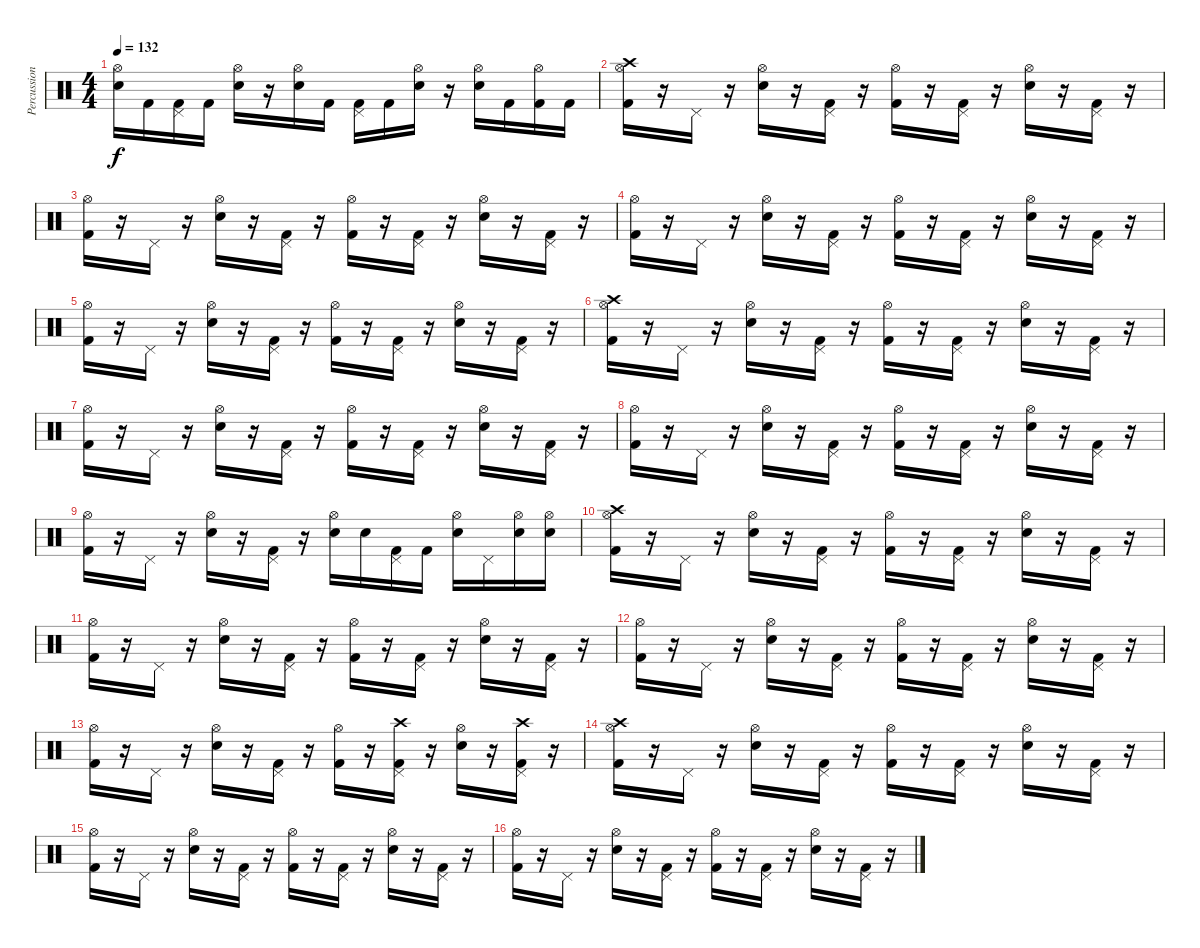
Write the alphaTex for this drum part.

\track ("Percussion" "Percussion") {instrument percussion}
\staff {score}
\articulation defaults
\ts (4 4)
\tempo 132
\clef neutral
\ks c
("Hi-Hat (open)" "Snare (hit) 2").16{dy f} "Kick (hit) 2".16 ("Pedal Hi-Hat (hit)" "Kick (hit) 2").16 "Kick (hit) 2".16 ("Snare (hit) 2" "Hi-Hat (open)").16 r.16 ("Hi-Hat (open)" "Snare (hit) 2").16 "Kick (hit) 2".16 ("Kick (hit) 2" "Pedal Hi-Hat (hit)").16 "Kick (hit) 2".16 ("Hi-Hat (open)" "Snare (hit) 2").16 r.16 ("Snare (hit) 2" "Hi-Hat (open)").16 "Kick (hit) 2".16 ("Kick (hit) 2" "Hi-Hat (open)").16 "Kick (hit) 2".16 |
("Kick (hit) 2" "Crash high (hit)" "Hi-Hat (open)").16 r.16 "Pedal Hi-Hat (hit)".16 r.16 ("Snare (hit) 2" "Hi-Hat (open)").16 r.16 ("Kick (hit) 2" "Pedal Hi-Hat (hit)").16 r.16 ("Kick (hit) 2" "Hi-Hat (open)").16 r.16 ("Kick (hit) 2" "Pedal Hi-Hat (hit)").16 r.16 ("Snare (hit) 2" "Hi-Hat (open)").16 r.16 ("Kick (hit) 2" "Pedal Hi-Hat (hit)").16 r.16 |
("Kick (hit) 2" "Hi-Hat (open)").16 r.16 "Pedal Hi-Hat (hit)".16 r.16 ("Snare (hit) 2" "Hi-Hat (open)").16 r.16 ("Kick (hit) 2" "Pedal Hi-Hat (hit)").16 r.16 ("Kick (hit) 2" "Hi-Hat (open)").16 r.16 ("Kick (hit) 2" "Pedal Hi-Hat (hit)").16 r.16 ("Snare (hit) 2" "Hi-Hat (open)").16 r.16 ("Kick (hit) 2" "Pedal Hi-Hat (hit)").16 r.16 |
("Kick (hit) 2" "Hi-Hat (open)").16 r.16 "Pedal Hi-Hat (hit)".16 r.16 ("Snare (hit) 2" "Hi-Hat (open)").16 r.16 ("Kick (hit) 2" "Pedal Hi-Hat (hit)").16 r.16 ("Kick (hit) 2" "Hi-Hat (open)").16 r.16 ("Kick (hit) 2" "Pedal Hi-Hat (hit)").16 r.16 ("Snare (hit) 2" "Hi-Hat (open)").16 r.16 ("Kick (hit) 2" "Pedal Hi-Hat (hit)").16 r.16 |
("Kick (hit) 2" "Hi-Hat (open)").16 r.16 "Pedal Hi-Hat (hit)".16 r.16 ("Snare (hit) 2" "Hi-Hat (open)").16 r.16 ("Kick (hit) 2" "Pedal Hi-Hat (hit)").16 r.16 ("Kick (hit) 2" "Hi-Hat (open)").16 r.16 ("Kick (hit) 2" "Pedal Hi-Hat (hit)").16 r.16 ("Snare (hit) 2" "Hi-Hat (open)").16 r.16 ("Kick (hit) 2" "Pedal Hi-Hat (hit)").16 r.16 |
("Kick (hit) 2" "Crash high (hit)" "Hi-Hat (open)").16 r.16 "Pedal Hi-Hat (hit)".16 r.16 ("Snare (hit) 2" "Hi-Hat (open)").16 r.16 ("Kick (hit) 2" "Pedal Hi-Hat (hit)").16 r.16 ("Kick (hit) 2" "Hi-Hat (open)").16 r.16 ("Kick (hit) 2" "Pedal Hi-Hat (hit)").16 r.16 ("Snare (hit) 2" "Hi-Hat (open)").16 r.16 ("Kick (hit) 2" "Pedal Hi-Hat (hit)").16 r.16 |
("Kick (hit) 2" "Hi-Hat (open)").16 r.16 "Pedal Hi-Hat (hit)".16 r.16 ("Snare (hit) 2" "Hi-Hat (open)").16 r.16 ("Kick (hit) 2" "Pedal Hi-Hat (hit)").16 r.16 ("Kick (hit) 2" "Hi-Hat (open)").16 r.16 ("Kick (hit) 2" "Pedal Hi-Hat (hit)").16 r.16 ("Snare (hit) 2" "Hi-Hat (open)").16 r.16 ("Kick (hit) 2" "Pedal Hi-Hat (hit)").16 r.16 |
("Kick (hit) 2" "Hi-Hat (open)").16 r.16 "Pedal Hi-Hat (hit)".16 r.16 ("Snare (hit) 2" "Hi-Hat (open)").16 r.16 ("Kick (hit) 2" "Pedal Hi-Hat (hit)").16 r.16 ("Kick (hit) 2" "Hi-Hat (open)").16 r.16 ("Kick (hit) 2" "Pedal Hi-Hat (hit)").16 r.16 ("Snare (hit) 2" "Hi-Hat (open)").16 r.16 ("Kick (hit) 2" "Pedal Hi-Hat (hit)").16 r.16 |
("Hi-Hat (open)" "Kick (hit) 2").16 r.16 "Pedal Hi-Hat (hit)".16 r.16 ("Hi-Hat (open)" "Snare (hit) 2").16 r.16 ("Pedal Hi-Hat (hit)" "Kick (hit) 2").16 r.16 ("Snare (hit) 2" "Hi-Hat (open)").16 "Snare (hit) 2".16 ("Kick (hit) 2" "Pedal Hi-Hat (hit)").16 "Kick (hit) 2".16 ("Snare (hit) 2" "Hi-Hat (open)").16 "Pedal Hi-Hat (hit)".16 ("Snare (hit) 2" "Hi-Hat (open)").16 ("Snare (hit) 2" "Hi-Hat (open)").16 |
("Crash high (hit)" "Hi-Hat (open)" "Kick (hit) 2").16 r.16 "Pedal Hi-Hat (hit)".16 r.16 ("Hi-Hat (open)" "Snare (hit) 2").16 r.16 ("Pedal Hi-Hat (hit)" "Kick (hit) 2").16 r.16 ("Hi-Hat (open)" "Kick (hit) 2").16 r.16 ("Pedal Hi-Hat (hit)" "Kick (hit) 2").16 r.16 ("Hi-Hat (open)" "Snare (hit) 2").16 r.16 ("Pedal Hi-Hat (hit)" "Kick (hit) 2").16 r.16 |
("Kick (hit) 2" "Hi-Hat (open)").16 r.16 "Pedal Hi-Hat (hit)".16 r.16 ("Snare (hit) 2" "Hi-Hat (open)").16 r.16 ("Kick (hit) 2" "Pedal Hi-Hat (hit)").16 r.16 ("Kick (hit) 2" "Hi-Hat (open)").16 r.16 ("Kick (hit) 2" "Pedal Hi-Hat (hit)").16 r.16 ("Snare (hit) 2" "Hi-Hat (open)").16 r.16 ("Kick (hit) 2" "Pedal Hi-Hat (hit)").16 r.16 |
("Kick (hit) 2" "Hi-Hat (open)").16 r.16 "Pedal Hi-Hat (hit)".16 r.16 ("Snare (hit) 2" "Hi-Hat (open)").16 r.16 ("Kick (hit) 2" "Pedal Hi-Hat (hit)").16 r.16 ("Kick (hit) 2" "Hi-Hat (open)").16 r.16 ("Kick (hit) 2" "Pedal Hi-Hat (hit)").16 r.16 ("Snare (hit) 2" "Hi-Hat (open)").16 r.16 ("Kick (hit) 2" "Pedal Hi-Hat (hit)").16 r.16 |
("Kick (hit) 2" "Hi-Hat (open)").16 r.16 "Pedal Hi-Hat (hit)".16 r.16 ("Snare (hit) 2" "Hi-Hat (open)").16 r.16 ("Kick (hit) 2" "Pedal Hi-Hat (hit)").16 r.16 ("Kick (hit) 2" "Hi-Hat (open)").16 r.16 ("Kick (hit) 2" "Pedal Hi-Hat (hit)" "Crash high (hit)").16 r.16 ("Snare (hit) 2" "Hi-Hat (open)").16 r.16 ("Kick (hit) 2" "Pedal Hi-Hat (hit)" "Crash high (hit)").16 r.16 |
("Crash high (hit)" "Hi-Hat (open)" "Kick (hit) 2").16 r.16 "Pedal Hi-Hat (hit)".16 r.16 ("Hi-Hat (open)" "Snare (hit) 2").16 r.16 ("Pedal Hi-Hat (hit)" "Kick (hit) 2").16 r.16 ("Hi-Hat (open)" "Kick (hit) 2").16 r.16 ("Pedal Hi-Hat (hit)" "Kick (hit) 2").16 r.16 ("Hi-Hat (open)" "Snare (hit) 2").16 r.16 ("Pedal Hi-Hat (hit)" "Kick (hit) 2").16 r.16 |
("Kick (hit) 2" "Hi-Hat (open)").16 r.16 "Pedal Hi-Hat (hit)".16 r.16 ("Snare (hit) 2" "Hi-Hat (open)").16 r.16 ("Kick (hit) 2" "Pedal Hi-Hat (hit)").16 r.16 ("Kick (hit) 2" "Hi-Hat (open)").16 r.16 ("Kick (hit) 2" "Pedal Hi-Hat (hit)").16 r.16 ("Snare (hit) 2" "Hi-Hat (open)").16 r.16 ("Kick (hit) 2" "Pedal Hi-Hat (hit)").16 r.16 |
("Kick (hit) 2" "Hi-Hat (open)").16 r.16 "Pedal Hi-Hat (hit)".16 r.16 ("Snare (hit) 2" "Hi-Hat (open)").16 r.16 ("Kick (hit) 2" "Pedal Hi-Hat (hit)").16 r.16 ("Kick (hit) 2" "Hi-Hat (open)").16 r.16 ("Kick (hit) 2" "Pedal Hi-Hat (hit)").16 r.16 ("Snare (hit) 2" "Hi-Hat (open)").16 r.16 ("Kick (hit) 2" "Pedal Hi-Hat (hit)").16 r.16
